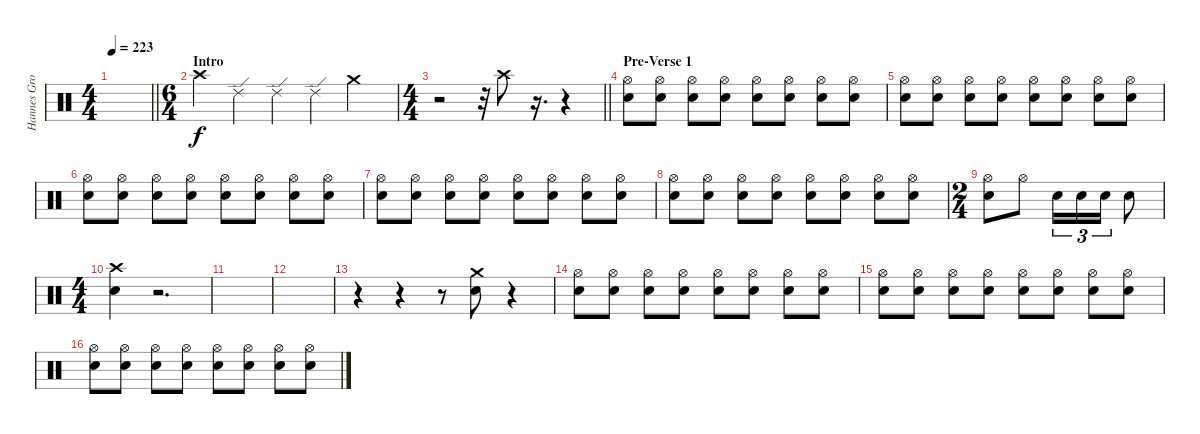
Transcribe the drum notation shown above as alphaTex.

\track ("Hannes Grossmann" "Hannes Gro") {instrument percussion}
\staff {score}
\articulation defaults
\ts (4 4)
\tempo 223
\clef neutral
\barLineRight lightlight
\ks c
|
\ts (6 4)
\section ("" "Intro")
"Crash high (hit)".4 "Ride (edge) 2".4 "Ride (edge) 2".4 "Ride (edge) 2".4 "Crash medium (hit)".2 |
\ts (4 4)
\barLineRight lightlight
r.2 r.32 "Crash high (hit)".8 r.16{d} r.4 |
\section ("" "Pre-Verse 1")
("Hi-Hat (open)" "Electric Snare (hit)").8 ("Hi-Hat (open)" "Electric Snare (hit)").8 ("Hi-Hat (open)" "Electric Snare (hit)").8 ("Hi-Hat (open)" "Electric Snare (hit)").8 ("Hi-Hat (open)" "Electric Snare (hit)").8 ("Hi-Hat (open)" "Electric Snare (hit)").8 ("Hi-Hat (open)" "Electric Snare (hit)").8 ("Hi-Hat (open)" "Electric Snare (hit)").8 |
("Hi-Hat (open)" "Electric Snare (hit)").8 ("Hi-Hat (open)" "Electric Snare (hit)").8 ("Hi-Hat (open)" "Electric Snare (hit)").8 ("Hi-Hat (open)" "Electric Snare (hit)").8 ("Hi-Hat (open)" "Electric Snare (hit)").8 ("Hi-Hat (open)" "Electric Snare (hit)").8 ("Hi-Hat (open)" "Electric Snare (hit)").8 ("Hi-Hat (open)" "Electric Snare (hit)").8 |
("Hi-Hat (open)" "Electric Snare (hit)").8 ("Hi-Hat (open)" "Electric Snare (hit)").8 ("Hi-Hat (open)" "Electric Snare (hit)").8 ("Hi-Hat (open)" "Electric Snare (hit)").8 ("Hi-Hat (open)" "Electric Snare (hit)").8 ("Hi-Hat (open)" "Electric Snare (hit)").8 ("Hi-Hat (open)" "Electric Snare (hit)").8 ("Hi-Hat (open)" "Electric Snare (hit)").8 |
("Hi-Hat (open)" "Electric Snare (hit)").8 ("Hi-Hat (open)" "Electric Snare (hit)").8 ("Hi-Hat (open)" "Electric Snare (hit)").8 ("Hi-Hat (open)" "Electric Snare (hit)").8 ("Hi-Hat (open)" "Electric Snare (hit)").8 ("Hi-Hat (open)" "Electric Snare (hit)").8 ("Hi-Hat (open)" "Electric Snare (hit)").8 ("Hi-Hat (open)" "Electric Snare (hit)").8 |
("Hi-Hat (open)" "Electric Snare (hit)").8 ("Hi-Hat (open)" "Electric Snare (hit)").8 ("Hi-Hat (open)" "Electric Snare (hit)").8 ("Hi-Hat (open)" "Electric Snare (hit)").8 ("Hi-Hat (open)" "Electric Snare (hit)").8 ("Hi-Hat (open)" "Electric Snare (hit)").8 ("Hi-Hat (open)" "Electric Snare (hit)").8 ("Hi-Hat (open)" "Electric Snare (hit)").8 |
\ts (2 4)
("Hi-Hat (open)" "Electric Snare (hit)").8 "Hi-Hat (open)".8 "Electric Snare (hit)".16{tu (3 2)} "Electric Snare (hit)".16{tu (3 2)} "Electric Snare (hit)".16{tu (3 2)} "Electric Snare (hit)".8 |
\ts (4 4)
("Crash high (hit)" "Electric Snare (hit)").4 r.2{d} |
|
|
r.4 r.4 r.8 ("Crash medium (hit)" "Electric Snare (hit)").8 r.4 |
("Hi-Hat (open)" "Electric Snare (hit)").8 ("Hi-Hat (open)" "Electric Snare (hit)").8 ("Hi-Hat (open)" "Electric Snare (hit)").8 ("Hi-Hat (open)" "Electric Snare (hit)").8 ("Hi-Hat (open)" "Electric Snare (hit)").8 ("Hi-Hat (open)" "Electric Snare (hit)").8 ("Hi-Hat (open)" "Electric Snare (hit)").8 ("Hi-Hat (open)" "Electric Snare (hit)").8 |
("Hi-Hat (open)" "Electric Snare (hit)").8 ("Hi-Hat (open)" "Electric Snare (hit)").8 ("Hi-Hat (open)" "Electric Snare (hit)").8 ("Hi-Hat (open)" "Electric Snare (hit)").8 ("Hi-Hat (open)" "Electric Snare (hit)").8 ("Hi-Hat (open)" "Electric Snare (hit)").8 ("Hi-Hat (open)" "Electric Snare (hit)").8 ("Hi-Hat (open)" "Electric Snare (hit)").8 |
("Hi-Hat (open)" "Electric Snare (hit)").8 ("Hi-Hat (open)" "Electric Snare (hit)").8 ("Hi-Hat (open)" "Electric Snare (hit)").8 ("Hi-Hat (open)" "Electric Snare (hit)").8 ("Hi-Hat (open)" "Electric Snare (hit)").8 ("Hi-Hat (open)" "Electric Snare (hit)").8 ("Hi-Hat (open)" "Electric Snare (hit)").8 ("Hi-Hat (open)" "Electric Snare (hit)").8
